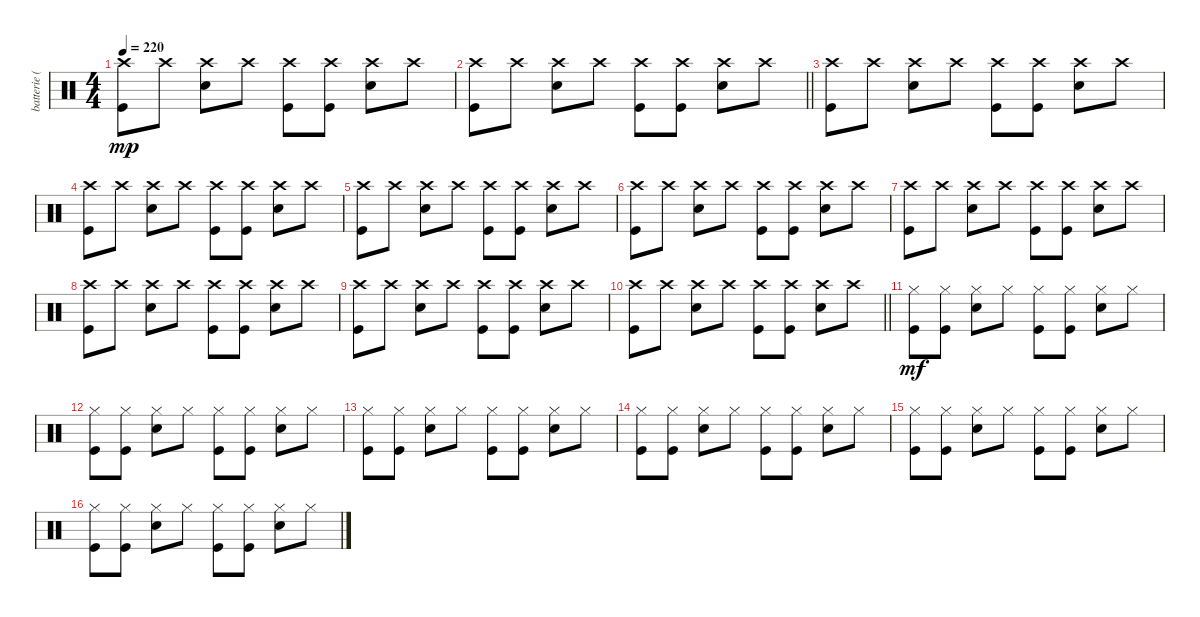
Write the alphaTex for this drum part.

\track ("batterie ( Guillaume ) " "batterie (") {instrument percussion}
\staff {score}
\articulation defaults
\ts (4 4)
\tempo 220
\clef neutral
\ks c
("Crash high (hit)" "Kick (hit)").8{dy mp} "Crash high (hit)".8 ("Crash high (hit)" "Snare (hit) 2").8 "Crash high (hit)".8 ("Crash high (hit)" "Kick (hit)").8 ("Crash high (hit)" "Kick (hit)").8 ("Crash high (hit)" "Snare (hit) 2").8 "Crash high (hit)".8 |
\barLineRight lightlight
("Crash high (hit)" "Kick (hit)").8 "Crash high (hit)".8 ("Crash high (hit)" "Snare (hit) 2").8 "Crash high (hit)".8 ("Crash high (hit)" "Kick (hit)").8 ("Crash high (hit)" "Kick (hit)").8 ("Crash high (hit)" "Snare (hit) 2").8 "Crash high (hit)".8 |
("Crash high (hit)" "Kick (hit)").8 "Crash high (hit)".8 ("Crash high (hit)" "Snare (hit) 2").8 "Crash high (hit)".8 ("Crash high (hit)" "Kick (hit)").8 ("Crash high (hit)" "Kick (hit)").8 ("Crash high (hit)" "Snare (hit) 2").8 "Crash high (hit)".8 |
("Crash high (hit)" "Kick (hit)").8 "Crash high (hit)".8 ("Crash high (hit)" "Snare (hit) 2").8 "Crash high (hit)".8 ("Crash high (hit)" "Kick (hit)").8 ("Crash high (hit)" "Kick (hit)").8 ("Crash high (hit)" "Snare (hit) 2").8 "Crash high (hit)".8 |
("Crash high (hit)" "Kick (hit)").8 "Crash high (hit)".8 ("Crash high (hit)" "Snare (hit) 2").8 "Crash high (hit)".8 ("Crash high (hit)" "Kick (hit)").8 ("Crash high (hit)" "Kick (hit)").8 ("Crash high (hit)" "Snare (hit) 2").8 "Crash high (hit)".8 |
("Crash high (hit)" "Kick (hit)").8 "Crash high (hit)".8 ("Crash high (hit)" "Snare (hit) 2").8 "Crash high (hit)".8 ("Crash high (hit)" "Kick (hit)").8 ("Crash high (hit)" "Kick (hit)").8 ("Crash high (hit)" "Snare (hit) 2").8 "Crash high (hit)".8 |
("Crash high (hit)" "Kick (hit)").8 "Crash high (hit)".8 ("Crash high (hit)" "Snare (hit) 2").8 "Crash high (hit)".8 ("Crash high (hit)" "Kick (hit)").8 ("Crash high (hit)" "Kick (hit)").8 ("Crash high (hit)" "Snare (hit) 2").8 "Crash high (hit)".8 |
("Crash high (hit)" "Kick (hit)").8 "Crash high (hit)".8 ("Crash high (hit)" "Snare (hit) 2").8 "Crash high (hit)".8 ("Crash high (hit)" "Kick (hit)").8 ("Crash high (hit)" "Kick (hit)").8 ("Crash high (hit)" "Snare (hit) 2").8 "Crash high (hit)".8 |
("Crash high (hit)" "Kick (hit)").8 "Crash high (hit)".8 ("Crash high (hit)" "Snare (hit) 2").8 "Crash high (hit)".8 ("Crash high (hit)" "Kick (hit)").8 ("Crash high (hit)" "Kick (hit)").8 ("Crash high (hit)" "Snare (hit) 2").8 "Crash high (hit)".8 |
\barLineRight lightlight
("Crash high (hit)" "Kick (hit)").8 "Crash high (hit)".8 ("Crash high (hit)" "Snare (hit) 2").8 "Crash high (hit)".8 ("Crash high (hit)" "Kick (hit)").8 ("Crash high (hit)" "Kick (hit)").8 ("Crash high (hit)" "Snare (hit) 2").8 "Crash high (hit)".8 |
("Hi-Hat (closed)" "Kick (hit)").8{dy mf} ("Hi-Hat (closed)" "Kick (hit)").8 ("Hi-Hat (closed)" "Snare (hit) 2").8 "Hi-Hat (closed)".8 ("Hi-Hat (closed)" "Kick (hit)").8 ("Hi-Hat (closed)" "Kick (hit)").8 ("Hi-Hat (closed)" "Snare (hit) 2").8 "Hi-Hat (closed)".8 |
("Hi-Hat (closed)" "Kick (hit)").8 ("Hi-Hat (closed)" "Kick (hit)").8 ("Hi-Hat (closed)" "Snare (hit) 2").8 "Hi-Hat (closed)".8 ("Hi-Hat (closed)" "Kick (hit)").8 ("Hi-Hat (closed)" "Kick (hit)").8 ("Hi-Hat (closed)" "Snare (hit) 2").8 "Hi-Hat (closed)".8 |
("Hi-Hat (closed)" "Kick (hit)").8 ("Hi-Hat (closed)" "Kick (hit)").8 ("Hi-Hat (closed)" "Snare (hit) 2").8 "Hi-Hat (closed)".8 ("Hi-Hat (closed)" "Kick (hit)").8 ("Hi-Hat (closed)" "Kick (hit)").8 ("Hi-Hat (closed)" "Snare (hit) 2").8 "Hi-Hat (closed)".8 |
("Hi-Hat (closed)" "Kick (hit)").8 ("Hi-Hat (closed)" "Kick (hit)").8 ("Hi-Hat (closed)" "Snare (hit) 2").8 "Hi-Hat (closed)".8 ("Hi-Hat (closed)" "Kick (hit)").8 ("Hi-Hat (closed)" "Kick (hit)").8 ("Hi-Hat (closed)" "Snare (hit) 2").8 "Hi-Hat (closed)".8 |
("Hi-Hat (closed)" "Kick (hit)").8 ("Hi-Hat (closed)" "Kick (hit)").8 ("Hi-Hat (closed)" "Snare (hit) 2").8 "Hi-Hat (closed)".8 ("Hi-Hat (closed)" "Kick (hit)").8 ("Hi-Hat (closed)" "Kick (hit)").8 ("Hi-Hat (closed)" "Snare (hit) 2").8 "Hi-Hat (closed)".8 |
("Hi-Hat (closed)" "Kick (hit)").8 ("Hi-Hat (closed)" "Kick (hit)").8 ("Hi-Hat (closed)" "Snare (hit) 2").8 "Hi-Hat (closed)".8 ("Hi-Hat (closed)" "Kick (hit)").8 ("Hi-Hat (closed)" "Kick (hit)").8 ("Hi-Hat (closed)" "Snare (hit) 2").8 "Hi-Hat (closed)".8
